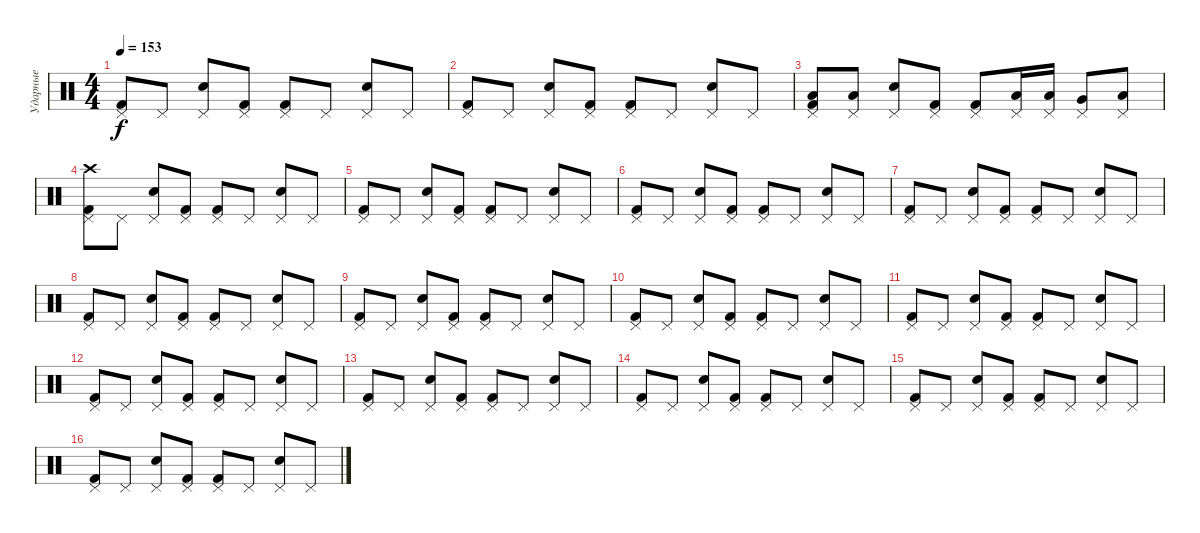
\track ("Ударные" "Ударные") {instrument percussion}
\staff {score}
\articulation defaults
\ts (4 4)
\tempo 153
\clef neutral
\ks c
("Pedal Hi-Hat (hit)" "Kick (hit) 2").8{dy f} "Pedal Hi-Hat (hit)".8 ("Electric Snare (hit)" "Pedal Hi-Hat (hit)").8 ("Pedal Hi-Hat (hit)" "Kick (hit) 2").8 ("Pedal Hi-Hat (hit)" "Kick (hit) 2").8 "Pedal Hi-Hat (hit)".8 ("Electric Snare (hit)" "Pedal Hi-Hat (hit)").8 "Pedal Hi-Hat (hit)".8 |
("Pedal Hi-Hat (hit)" "Kick (hit) 2").8 "Pedal Hi-Hat (hit)".8 ("Electric Snare (hit)" "Pedal Hi-Hat (hit)").8 ("Pedal Hi-Hat (hit)" "Kick (hit) 2").8 ("Pedal Hi-Hat (hit)" "Kick (hit) 2").8 "Pedal Hi-Hat (hit)".8 ("Electric Snare (hit)" "Pedal Hi-Hat (hit)").8 "Pedal Hi-Hat (hit)".8 |
("Low Tom (hit)" "Pedal Hi-Hat (hit)" "Kick (hit) 2").8 ("Low Tom (hit)" "Pedal Hi-Hat (hit)").8 ("Electric Snare (hit)" "Pedal Hi-Hat (hit)").8 ("Pedal Hi-Hat (hit)" "Kick (hit) 2").8 ("Pedal Hi-Hat (hit)" "Kick (hit) 2").8 ("Low Tom (hit)" "Pedal Hi-Hat (hit)").16 ("Low Tom (hit)" "Pedal Hi-Hat (hit)").16 ("Very Low Tom (hit)" "Pedal Hi-Hat (hit)").8 ("Low Floor Tom (hit)" "Pedal Hi-Hat (hit)").8 |
("Crash high (hit)" "Pedal Hi-Hat (hit)" "Kick (hit) 2").8 "Pedal Hi-Hat (hit)".8 ("Electric Snare (hit)" "Pedal Hi-Hat (hit)").8 ("Pedal Hi-Hat (hit)" "Kick (hit) 2").8 ("Pedal Hi-Hat (hit)" "Kick (hit) 2").8 "Pedal Hi-Hat (hit)".8 ("Electric Snare (hit)" "Pedal Hi-Hat (hit)").8 "Pedal Hi-Hat (hit)".8 |
("Pedal Hi-Hat (hit)" "Kick (hit) 2").8 "Pedal Hi-Hat (hit)".8 ("Electric Snare (hit)" "Pedal Hi-Hat (hit)").8 ("Pedal Hi-Hat (hit)" "Kick (hit) 2").8 ("Pedal Hi-Hat (hit)" "Kick (hit) 2").8 "Pedal Hi-Hat (hit)".8 ("Electric Snare (hit)" "Pedal Hi-Hat (hit)").8 "Pedal Hi-Hat (hit)".8 |
("Pedal Hi-Hat (hit)" "Kick (hit) 2").8 "Pedal Hi-Hat (hit)".8 ("Electric Snare (hit)" "Pedal Hi-Hat (hit)").8 ("Pedal Hi-Hat (hit)" "Kick (hit) 2").8 ("Pedal Hi-Hat (hit)" "Kick (hit) 2").8 "Pedal Hi-Hat (hit)".8 ("Electric Snare (hit)" "Pedal Hi-Hat (hit)").8 "Pedal Hi-Hat (hit)".8 |
("Pedal Hi-Hat (hit)" "Kick (hit) 2").8 "Pedal Hi-Hat (hit)".8 ("Electric Snare (hit)" "Pedal Hi-Hat (hit)").8 ("Pedal Hi-Hat (hit)" "Kick (hit) 2").8 ("Pedal Hi-Hat (hit)" "Kick (hit) 2").8 "Pedal Hi-Hat (hit)".8 ("Electric Snare (hit)" "Pedal Hi-Hat (hit)").8 "Pedal Hi-Hat (hit)".8 |
("Pedal Hi-Hat (hit)" "Kick (hit) 2").8 "Pedal Hi-Hat (hit)".8 ("Electric Snare (hit)" "Pedal Hi-Hat (hit)").8 ("Pedal Hi-Hat (hit)" "Kick (hit) 2").8 ("Pedal Hi-Hat (hit)" "Kick (hit) 2").8 "Pedal Hi-Hat (hit)".8 ("Electric Snare (hit)" "Pedal Hi-Hat (hit)").8 "Pedal Hi-Hat (hit)".8 |
("Pedal Hi-Hat (hit)" "Kick (hit) 2").8 "Pedal Hi-Hat (hit)".8 ("Electric Snare (hit)" "Pedal Hi-Hat (hit)").8 ("Pedal Hi-Hat (hit)" "Kick (hit) 2").8 ("Pedal Hi-Hat (hit)" "Kick (hit) 2").8 "Pedal Hi-Hat (hit)".8 ("Electric Snare (hit)" "Pedal Hi-Hat (hit)").8 "Pedal Hi-Hat (hit)".8 |
("Pedal Hi-Hat (hit)" "Kick (hit) 2").8 "Pedal Hi-Hat (hit)".8 ("Electric Snare (hit)" "Pedal Hi-Hat (hit)").8 ("Pedal Hi-Hat (hit)" "Kick (hit) 2").8 ("Pedal Hi-Hat (hit)" "Kick (hit) 2").8 "Pedal Hi-Hat (hit)".8 ("Electric Snare (hit)" "Pedal Hi-Hat (hit)").8 "Pedal Hi-Hat (hit)".8 |
("Pedal Hi-Hat (hit)" "Kick (hit) 2").8 "Pedal Hi-Hat (hit)".8 ("Electric Snare (hit)" "Pedal Hi-Hat (hit)").8 ("Pedal Hi-Hat (hit)" "Kick (hit) 2").8 ("Pedal Hi-Hat (hit)" "Kick (hit) 2").8 "Pedal Hi-Hat (hit)".8 ("Electric Snare (hit)" "Pedal Hi-Hat (hit)").8 "Pedal Hi-Hat (hit)".8 |
("Pedal Hi-Hat (hit)" "Kick (hit) 2").8 "Pedal Hi-Hat (hit)".8 ("Electric Snare (hit)" "Pedal Hi-Hat (hit)").8 ("Pedal Hi-Hat (hit)" "Kick (hit) 2").8 ("Pedal Hi-Hat (hit)" "Kick (hit) 2").8 "Pedal Hi-Hat (hit)".8 ("Electric Snare (hit)" "Pedal Hi-Hat (hit)").8 "Pedal Hi-Hat (hit)".8 |
("Pedal Hi-Hat (hit)" "Kick (hit) 2").8 "Pedal Hi-Hat (hit)".8 ("Electric Snare (hit)" "Pedal Hi-Hat (hit)").8 ("Pedal Hi-Hat (hit)" "Kick (hit) 2").8 ("Pedal Hi-Hat (hit)" "Kick (hit) 2").8 "Pedal Hi-Hat (hit)".8 ("Electric Snare (hit)" "Pedal Hi-Hat (hit)").8 "Pedal Hi-Hat (hit)".8 |
("Pedal Hi-Hat (hit)" "Kick (hit) 2").8 "Pedal Hi-Hat (hit)".8 ("Electric Snare (hit)" "Pedal Hi-Hat (hit)").8 ("Pedal Hi-Hat (hit)" "Kick (hit) 2").8 ("Pedal Hi-Hat (hit)" "Kick (hit) 2").8 "Pedal Hi-Hat (hit)".8 ("Electric Snare (hit)" "Pedal Hi-Hat (hit)").8 "Pedal Hi-Hat (hit)".8 |
("Pedal Hi-Hat (hit)" "Kick (hit) 2").8 "Pedal Hi-Hat (hit)".8 ("Electric Snare (hit)" "Pedal Hi-Hat (hit)").8 ("Pedal Hi-Hat (hit)" "Kick (hit) 2").8 ("Pedal Hi-Hat (hit)" "Kick (hit) 2").8 "Pedal Hi-Hat (hit)".8 ("Electric Snare (hit)" "Pedal Hi-Hat (hit)").8 "Pedal Hi-Hat (hit)".8 |
("Pedal Hi-Hat (hit)" "Kick (hit) 2").8 "Pedal Hi-Hat (hit)".8 ("Electric Snare (hit)" "Pedal Hi-Hat (hit)").8 ("Pedal Hi-Hat (hit)" "Kick (hit) 2").8 ("Pedal Hi-Hat (hit)" "Kick (hit) 2").8 "Pedal Hi-Hat (hit)".8 ("Electric Snare (hit)" "Pedal Hi-Hat (hit)").8 "Pedal Hi-Hat (hit)".8
